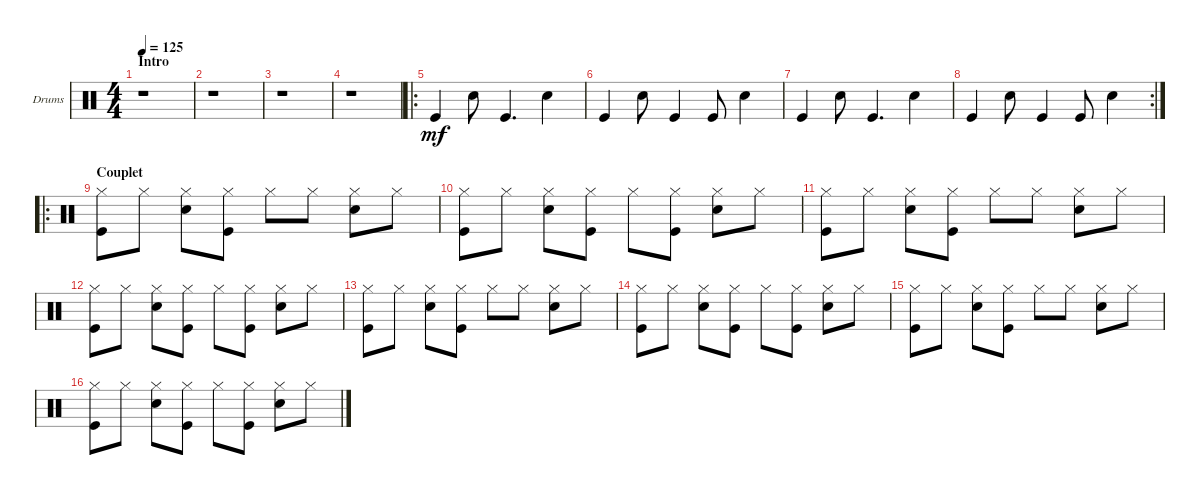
\defaultSystemsLayout 4
\bracketExtendMode groupsimilarinstruments
\firstSystemTrackNameOrientation horizontal
\otherSystemsTrackNameOrientation horizontal
\track ("Drumkit" "Drums") {instrument percussion}
\staff {score}
\articulation defaults
\ts (4 4)
\section ("" "Intro")
\tempo 125
\clef neutral
\scale
0.474178
\ks c
r.1{dy mf} |
\scale
0.262911 r.1 |
\scale
0.262911 r.1 |
\scale
0.333333 r.1 |
\ro
\scale
0.333333 "Kick (hit)".4 "Snare (hit) 2".8 "Kick (hit)".4{d} "Snare (hit) 2".4 |
\scale
0.333333 "Kick (hit)".4 "Snare (hit) 2".8 "Kick (hit)".4 "Kick (hit)".8 "Snare (hit) 2".4 |
\scale
0.5 "Kick (hit)".4 "Snare (hit) 2".8 "Kick (hit)".4{d} "Snare (hit) 2".4 |
\rc 2
\scale
0.5 "Kick (hit)".4 "Snare (hit) 2".8 "Kick (hit)".4 "Kick (hit)".8 "Snare (hit) 2".4 |
\ro
\section ("" "Couplet")
("Hi-Hat (closed)" "Kick (hit)").8 "Hi-Hat (closed)".8 ("Hi-Hat (closed)" "Snare (hit) 2").8 ("Hi-Hat (closed)" "Kick (hit)").8 "Hi-Hat (closed)".8 "Hi-Hat (closed)".8 ("Hi-Hat (closed)" "Snare (hit) 2").8 "Hi-Hat (closed)".8 |
("Hi-Hat (closed)" "Kick (hit)").8 "Hi-Hat (closed)".8 ("Hi-Hat (closed)" "Snare (hit) 2").8 ("Hi-Hat (closed)" "Kick (hit)").8 "Hi-Hat (closed)".8 ("Hi-Hat (closed)" "Kick (hit)").8 ("Hi-Hat (closed)" "Snare (hit) 2").8 "Hi-Hat (closed)".8 |
("Hi-Hat (closed)" "Kick (hit)").8 "Hi-Hat (closed)".8 ("Hi-Hat (closed)" "Snare (hit) 2").8 ("Hi-Hat (closed)" "Kick (hit)").8 "Hi-Hat (closed)".8 "Hi-Hat (closed)".8 ("Hi-Hat (closed)" "Snare (hit) 2").8 "Hi-Hat (closed)".8 |
("Hi-Hat (closed)" "Kick (hit)").8 "Hi-Hat (closed)".8 ("Hi-Hat (closed)" "Snare (hit) 2").8 ("Hi-Hat (closed)" "Kick (hit)").8 "Hi-Hat (closed)".8 ("Hi-Hat (closed)" "Kick (hit)").8 ("Hi-Hat (closed)" "Snare (hit) 2").8 "Hi-Hat (closed)".8 |
("Hi-Hat (closed)" "Kick (hit)").8 "Hi-Hat (closed)".8 ("Hi-Hat (closed)" "Snare (hit) 2").8 ("Hi-Hat (closed)" "Kick (hit)").8 "Hi-Hat (closed)".8 "Hi-Hat (closed)".8 ("Hi-Hat (closed)" "Snare (hit) 2").8 "Hi-Hat (closed)".8 |
("Hi-Hat (closed)" "Kick (hit)").8 "Hi-Hat (closed)".8 ("Hi-Hat (closed)" "Snare (hit) 2").8 ("Hi-Hat (closed)" "Kick (hit)").8 "Hi-Hat (closed)".8 ("Hi-Hat (closed)" "Kick (hit)").8 ("Hi-Hat (closed)" "Snare (hit) 2").8 "Hi-Hat (closed)".8 |
("Hi-Hat (closed)" "Kick (hit)").8 "Hi-Hat (closed)".8 ("Hi-Hat (closed)" "Snare (hit) 2").8 ("Hi-Hat (closed)" "Kick (hit)").8 "Hi-Hat (closed)".8 "Hi-Hat (closed)".8 ("Hi-Hat (closed)" "Snare (hit) 2").8 "Hi-Hat (closed)".8 |
("Hi-Hat (closed)" "Kick (hit)").8 "Hi-Hat (closed)".8 ("Hi-Hat (closed)" "Snare (hit) 2").8 ("Hi-Hat (closed)" "Kick (hit)").8 "Hi-Hat (closed)".8 ("Hi-Hat (closed)" "Kick (hit)").8 ("Hi-Hat (closed)" "Snare (hit) 2").8 "Hi-Hat (closed)".8
